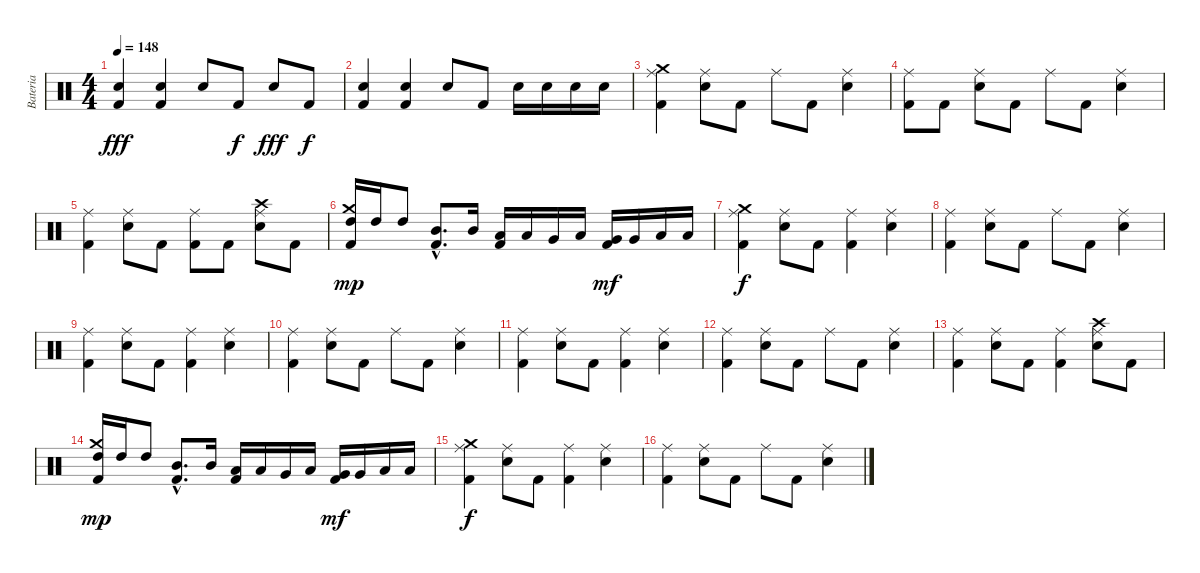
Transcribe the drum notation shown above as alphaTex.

\track ("Bateria" "Bateria") {instrument percussion}
\staff {score}
\articulation defaults
\ts (4 4)
\tempo 148
\clef neutral
\ks c
("Electric Snare (hit)" "Kick (hit) 2").4{dy fff} ("Electric Snare (hit)" "Kick (hit) 2").4 "Electric Snare (hit)".8 "Kick (hit) 2".8{dy f} "Electric Snare (hit)".8{dy fff} "Kick (hit) 2".8{dy f} |
("Electric Snare (hit)" "Kick (hit) 2").4 ("Electric Snare (hit)" "Kick (hit) 2").4 "Electric Snare (hit)".8 "Kick (hit) 2".8 "Electric Snare (hit)".16 "Electric Snare (hit)".16 "Electric Snare (hit)".16 "Electric Snare (hit)".16 |
("Crash medium (hit)" "Kick (hit) 2" "Ride (middle)").4 ("Electric Snare (hit)" "Ride (middle)").8 "Kick (hit) 2".8 "Ride (middle)".8 "Kick (hit) 2".8 ("Electric Snare (hit)" "Ride (middle)").4 |
("Kick (hit) 2" "Ride (middle)").8 "Kick (hit) 2".8 ("Electric Snare (hit)" "Ride (middle)").8 "Kick (hit) 2".8 "Ride (middle)".8 "Kick (hit) 2".8 ("Electric Snare (hit)" "Ride (middle)").4 |
("Kick (hit) 2" "Ride (middle)").4 ("Electric Snare (hit)" "Ride (middle)").8 "Kick (hit) 2".8 ("Kick (hit) 2" "Ride (middle)").8 "Kick (hit) 2".8 ("Electric Snare (hit)" "Ride (middle)" "Crash high (hit)").8 "Kick (hit) 2".8 |
("Kick (hit) 2" "High Tom (hit)" "Crash medium (hit)").16{dy mp} "High Tom (hit)".16 "High Tom (hit)".8 ("Kick (hit) 2"{hac} "Mid Tom (hit)"{hac}).8{d} "Mid Tom (hit)".16 ("Kick (hit) 2" "Low Tom (hit)").16 "Low Tom (hit)".16 "Very Low Tom (hit)".16 "Low Floor Tom (hit)".16 ("Kick (hit) 2" "Very Low Tom (hit)").16{dy mf} "Very Low Tom (hit)".16 "Low Floor Tom (hit)".16 "Low Floor Tom (hit)".16 |
("Kick (hit) 2" "Crash medium (hit)" "Ride (middle)").4{dy f} ("Electric Snare (hit)" "Ride (middle)").8 "Kick (hit) 2".8 ("Kick (hit) 2" "Ride (middle)").4 ("Electric Snare (hit)" "Ride (middle)").4 |
("Kick (hit) 2" "Ride (middle)").4 ("Electric Snare (hit)" "Ride (middle)").8 "Kick (hit) 2".8 "Ride (middle)".8 "Kick (hit) 2".8 ("Electric Snare (hit)" "Ride (middle)").4 |
("Kick (hit) 2" "Ride (middle)").4 ("Electric Snare (hit)" "Ride (middle)").8 "Kick (hit) 2".8 ("Kick (hit) 2" "Ride (middle)").4 ("Electric Snare (hit)" "Ride (middle)").4 |
("Kick (hit) 2" "Ride (middle)").4 ("Electric Snare (hit)" "Ride (middle)").8 "Kick (hit) 2".8 "Ride (middle)".8 "Kick (hit) 2".8 ("Electric Snare (hit)" "Ride (middle)").4 |
("Kick (hit) 2" "Ride (middle)").4 ("Electric Snare (hit)" "Ride (middle)").8 "Kick (hit) 2".8 ("Kick (hit) 2" "Ride (middle)").4 ("Electric Snare (hit)" "Ride (middle)").4 |
("Kick (hit) 2" "Ride (middle)").4 ("Electric Snare (hit)" "Ride (middle)").8 "Kick (hit) 2".8 "Ride (middle)".8 "Kick (hit) 2".8 ("Electric Snare (hit)" "Ride (middle)").4 |
("Kick (hit) 2" "Ride (middle)").4 ("Electric Snare (hit)" "Ride (middle)").8 "Kick (hit) 2".8 ("Kick (hit) 2" "Ride (middle)").4 ("Electric Snare (hit)" "Ride (middle)" "Crash high (hit)").8 "Kick (hit) 2".8 |
("Kick (hit) 2" "High Tom (hit)" "Crash medium (hit)").16{dy mp} "High Tom (hit)".16 "High Tom (hit)".8 ("Kick (hit) 2"{hac} "Mid Tom (hit)"{hac}).8{d} "Mid Tom (hit)".16 ("Kick (hit) 2" "Low Tom (hit)").16 "Low Tom (hit)".16 "Very Low Tom (hit)".16 "Low Floor Tom (hit)".16 ("Kick (hit) 2" "Very Low Tom (hit)").16{dy mf} "Very Low Tom (hit)".16 "Low Floor Tom (hit)".16 "Low Floor Tom (hit)".16 |
("Kick (hit) 2" "Crash medium (hit)" "Ride (middle)").4{dy f} ("Electric Snare (hit)" "Ride (middle)").8 "Kick (hit) 2".8 ("Kick (hit) 2" "Ride (middle)").4 ("Electric Snare (hit)" "Ride (middle)").4 |
("Kick (hit) 2" "Ride (middle)").4 ("Electric Snare (hit)" "Ride (middle)").8 "Kick (hit) 2".8 "Ride (middle)".8 "Kick (hit) 2".8 ("Electric Snare (hit)" "Ride (middle)").4
